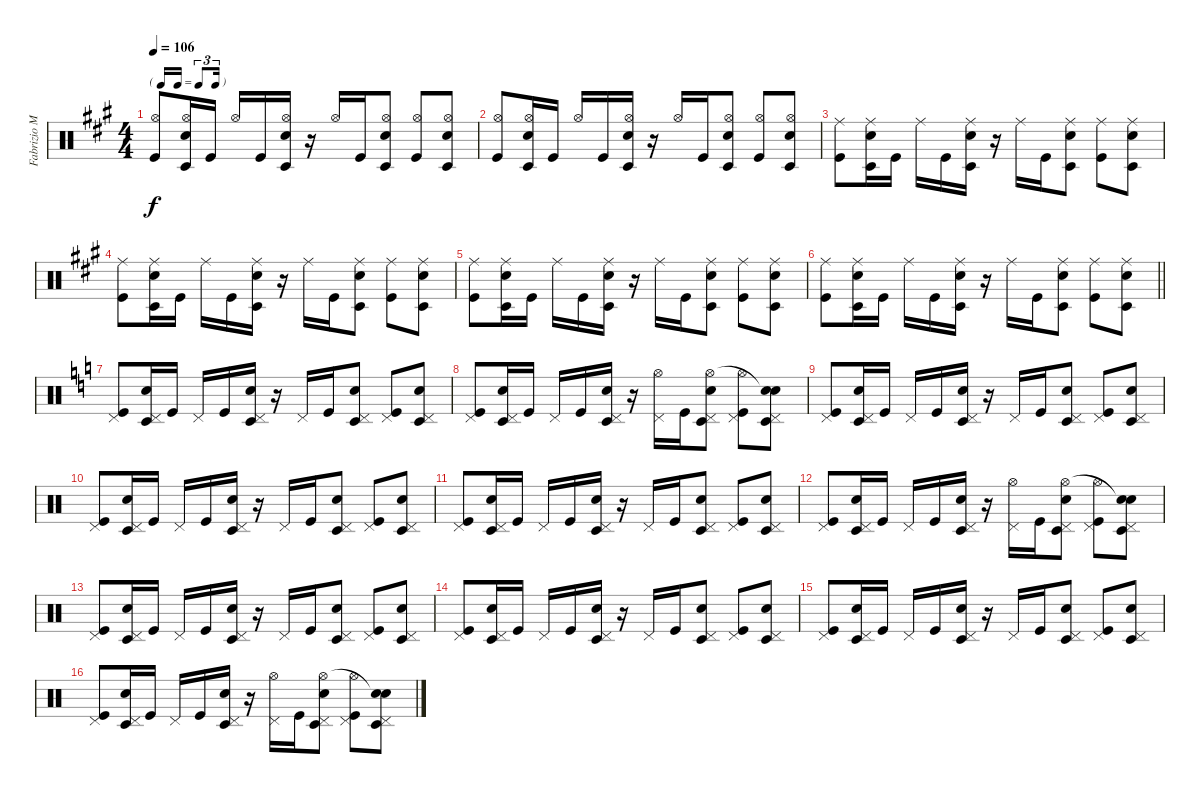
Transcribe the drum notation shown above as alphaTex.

\track ("Fabrizio Moretti" "Fabrizio M") {instrument percussion}
\staff {score}
\articulation defaults
\ts (4 4)
\tf triplet16th
\tempo 106
\clef neutral
\ks a
("Hi-Hat (open)" "Kick (hit)").8{dy f} ("Hi-Hat (open)" "Electric Snare (hit)" "Timbale low (hit)").16 "Kick (hit)".16 "Hi-Hat (open)".16 "Kick (hit)".16 ("Hi-Hat (open)" "Timbale low (hit)" "Electric Snare (hit)").16 r.16 "Hi-Hat (open)".16 "Kick (hit)".16 ("Hi-Hat (open)" "Electric Snare (hit)" "Timbale low (hit)").8 ("Hi-Hat (open)" "Kick (hit)").8 ("Hi-Hat (open)" "Electric Snare (hit)" "Timbale low (hit)").8 |
("Hi-Hat (open)" "Kick (hit)").8 ("Hi-Hat (open)" "Electric Snare (hit)" "Timbale low (hit)").16 "Kick (hit)".16 "Hi-Hat (open)".16 "Kick (hit)".16 ("Hi-Hat (open)" "Timbale low (hit)" "Electric Snare (hit)").16 r.16 "Hi-Hat (open)".16 "Kick (hit)".16 ("Hi-Hat (open)" "Electric Snare (hit)" "Timbale low (hit)").8 ("Hi-Hat (open)" "Kick (hit)").8 ("Hi-Hat (open)" "Electric Snare (hit)" "Timbale low (hit)").8 |
("Ride (middle)" "Kick (hit)").8 ("Ride (middle)" "Electric Snare (hit)" "Timbale low (hit)").16 "Kick (hit)".16 "Ride (middle)".16 "Kick (hit)".16 ("Ride (middle)" "Timbale low (hit)" "Electric Snare (hit)").16 r.16 "Ride (middle)".16 "Kick (hit)".16 ("Ride (middle)" "Electric Snare (hit)" "Timbale low (hit)").8 ("Ride (middle)" "Kick (hit)").8 ("Ride (middle)" "Electric Snare (hit)" "Timbale low (hit)").8 |
("Ride (middle)" "Kick (hit)").8 ("Ride (middle)" "Electric Snare (hit)" "Timbale low (hit)").16 "Kick (hit)".16 "Ride (middle)".16 "Kick (hit)".16 ("Ride (middle)" "Timbale low (hit)" "Electric Snare (hit)").16 r.16 "Ride (middle)".16 "Kick (hit)".16 ("Ride (middle)" "Electric Snare (hit)" "Timbale low (hit)").8 ("Ride (middle)" "Kick (hit)").8 ("Ride (middle)" "Electric Snare (hit)" "Timbale low (hit)").8 |
("Ride (middle)" "Kick (hit)").8 ("Ride (middle)" "Electric Snare (hit)" "Timbale low (hit)").16 "Kick (hit)".16 "Ride (middle)".16 "Kick (hit)".16 ("Ride (middle)" "Timbale low (hit)" "Electric Snare (hit)").16 r.16 "Ride (middle)".16 "Kick (hit)".16 ("Ride (middle)" "Electric Snare (hit)" "Timbale low (hit)").8 ("Ride (middle)" "Kick (hit)").8 ("Ride (middle)" "Electric Snare (hit)" "Timbale low (hit)").8 |
\barLineRight lightlight
("Ride (middle)" "Kick (hit)").8 ("Ride (middle)" "Electric Snare (hit)" "Timbale low (hit)").16 "Kick (hit)".16 "Ride (middle)".16 "Kick (hit)".16 ("Ride (middle)" "Timbale low (hit)" "Electric Snare (hit)").16 r.16 "Ride (middle)".16 "Kick (hit)".16 ("Ride (middle)" "Electric Snare (hit)" "Timbale low (hit)").8 ("Ride (middle)" "Kick (hit)").8 ("Ride (middle)" "Electric Snare (hit)" "Timbale low (hit)").8 |
\ks c
("Pedal Hi-Hat (hit)" "Kick (hit)").8 ("Pedal Hi-Hat (hit)" "Electric Snare (hit)" "Timbale low (hit)").16 "Kick (hit)".16 "Pedal Hi-Hat (hit)".16 "Kick (hit)".16 ("Pedal Hi-Hat (hit)" "Timbale low (hit)" "Electric Snare (hit)").16 r.16 "Pedal Hi-Hat (hit)".16 "Kick (hit)".16 ("Pedal Hi-Hat (hit)" "Electric Snare (hit)" "Timbale low (hit)").8 ("Pedal Hi-Hat (hit)" "Kick (hit)").8 ("Pedal Hi-Hat (hit)" "Electric Snare (hit)" "Timbale low (hit)").8 |
("Pedal Hi-Hat (hit)" "Kick (hit)").8 ("Pedal Hi-Hat (hit)" "Electric Snare (hit)" "Timbale low (hit)").16 "Kick (hit)".16 "Pedal Hi-Hat (hit)".16 "Kick (hit)".16 ("Pedal Hi-Hat (hit)" "Timbale low (hit)" "Electric Snare (hit)").16 r.16 ("Pedal Hi-Hat (hit)" "Hi-Hat (open)").16 "Kick (hit)".16 ("Pedal Hi-Hat (hit)" "Electric Snare (hit)" "Timbale low (hit)" "Hi-Hat (open)").8 ("Pedal Hi-Hat (hit)" "Hi-Hat (open)" "Kick (hit)").8 ("Pedal Hi-Hat (hit)" "Electric Snare (hit)" "Timbale low (hit)" "Snare (hit)"{t}).8 |
("Pedal Hi-Hat (hit)" "Kick (hit)").8 ("Pedal Hi-Hat (hit)" "Electric Snare (hit)" "Timbale low (hit)").16 "Kick (hit)".16 "Pedal Hi-Hat (hit)".16 "Kick (hit)".16 ("Pedal Hi-Hat (hit)" "Timbale low (hit)" "Electric Snare (hit)").16 r.16 "Pedal Hi-Hat (hit)".16 "Kick (hit)".16 ("Pedal Hi-Hat (hit)" "Electric Snare (hit)" "Timbale low (hit)").8 ("Pedal Hi-Hat (hit)" "Kick (hit)").8 ("Pedal Hi-Hat (hit)" "Electric Snare (hit)" "Timbale low (hit)").8 |
("Pedal Hi-Hat (hit)" "Kick (hit)").8 ("Pedal Hi-Hat (hit)" "Electric Snare (hit)" "Timbale low (hit)").16 "Kick (hit)".16 "Pedal Hi-Hat (hit)".16 "Kick (hit)".16 ("Pedal Hi-Hat (hit)" "Timbale low (hit)" "Electric Snare (hit)").16 r.16 "Pedal Hi-Hat (hit)".16 "Kick (hit)".16 ("Pedal Hi-Hat (hit)" "Electric Snare (hit)" "Timbale low (hit)").8 ("Pedal Hi-Hat (hit)" "Kick (hit)").8 ("Pedal Hi-Hat (hit)" "Electric Snare (hit)" "Timbale low (hit)").8 |
("Pedal Hi-Hat (hit)" "Kick (hit)").8 ("Pedal Hi-Hat (hit)" "Electric Snare (hit)" "Timbale low (hit)").16 "Kick (hit)".16 "Pedal Hi-Hat (hit)".16 "Kick (hit)".16 ("Pedal Hi-Hat (hit)" "Timbale low (hit)" "Electric Snare (hit)").16 r.16 "Pedal Hi-Hat (hit)".16 "Kick (hit)".16 ("Pedal Hi-Hat (hit)" "Electric Snare (hit)" "Timbale low (hit)").8 ("Pedal Hi-Hat (hit)" "Kick (hit)").8 ("Pedal Hi-Hat (hit)" "Electric Snare (hit)" "Timbale low (hit)").8 |
("Pedal Hi-Hat (hit)" "Kick (hit)").8 ("Pedal Hi-Hat (hit)" "Electric Snare (hit)" "Timbale low (hit)").16 "Kick (hit)".16 "Pedal Hi-Hat (hit)".16 "Kick (hit)".16 ("Pedal Hi-Hat (hit)" "Timbale low (hit)" "Electric Snare (hit)").16 r.16 ("Pedal Hi-Hat (hit)" "Hi-Hat (open)").16 "Kick (hit)".16 ("Pedal Hi-Hat (hit)" "Electric Snare (hit)" "Timbale low (hit)" "Hi-Hat (open)").8 ("Pedal Hi-Hat (hit)" "Hi-Hat (open)" "Kick (hit)").8 ("Pedal Hi-Hat (hit)" "Electric Snare (hit)" "Timbale low (hit)" "Snare (hit)"{t}).8 |
("Pedal Hi-Hat (hit)" "Kick (hit)").8 ("Pedal Hi-Hat (hit)" "Electric Snare (hit)" "Timbale low (hit)").16 "Kick (hit)".16 "Pedal Hi-Hat (hit)".16 "Kick (hit)".16 ("Pedal Hi-Hat (hit)" "Timbale low (hit)" "Electric Snare (hit)").16 r.16 "Pedal Hi-Hat (hit)".16 "Kick (hit)".16 ("Pedal Hi-Hat (hit)" "Electric Snare (hit)" "Timbale low (hit)").8 ("Pedal Hi-Hat (hit)" "Kick (hit)").8 ("Pedal Hi-Hat (hit)" "Electric Snare (hit)" "Timbale low (hit)").8 |
("Pedal Hi-Hat (hit)" "Kick (hit)").8 ("Pedal Hi-Hat (hit)" "Electric Snare (hit)" "Timbale low (hit)").16 "Kick (hit)".16 "Pedal Hi-Hat (hit)".16 "Kick (hit)".16 ("Pedal Hi-Hat (hit)" "Timbale low (hit)" "Electric Snare (hit)").16 r.16 "Pedal Hi-Hat (hit)".16 "Kick (hit)".16 ("Pedal Hi-Hat (hit)" "Electric Snare (hit)" "Timbale low (hit)").8 ("Pedal Hi-Hat (hit)" "Kick (hit)").8 ("Pedal Hi-Hat (hit)" "Electric Snare (hit)" "Timbale low (hit)").8 |
("Pedal Hi-Hat (hit)" "Kick (hit)").8 ("Pedal Hi-Hat (hit)" "Electric Snare (hit)" "Timbale low (hit)").16 "Kick (hit)".16 "Pedal Hi-Hat (hit)".16 "Kick (hit)".16 ("Pedal Hi-Hat (hit)" "Timbale low (hit)" "Electric Snare (hit)").16 r.16 "Pedal Hi-Hat (hit)".16 "Kick (hit)".16 ("Pedal Hi-Hat (hit)" "Electric Snare (hit)" "Timbale low (hit)").8 ("Pedal Hi-Hat (hit)" "Kick (hit)").8 ("Pedal Hi-Hat (hit)" "Electric Snare (hit)" "Timbale low (hit)").8 |
("Pedal Hi-Hat (hit)" "Kick (hit)").8 ("Pedal Hi-Hat (hit)" "Electric Snare (hit)" "Timbale low (hit)").16 "Kick (hit)".16 "Pedal Hi-Hat (hit)".16 "Kick (hit)".16 ("Pedal Hi-Hat (hit)" "Timbale low (hit)" "Electric Snare (hit)").16 r.16 ("Pedal Hi-Hat (hit)" "Hi-Hat (open)").16 "Kick (hit)".16 ("Pedal Hi-Hat (hit)" "Electric Snare (hit)" "Timbale low (hit)" "Hi-Hat (open)").8 ("Pedal Hi-Hat (hit)" "Hi-Hat (open)" "Kick (hit)").8 ("Pedal Hi-Hat (hit)" "Electric Snare (hit)" "Timbale low (hit)" "Snare (hit)"{t}).8
